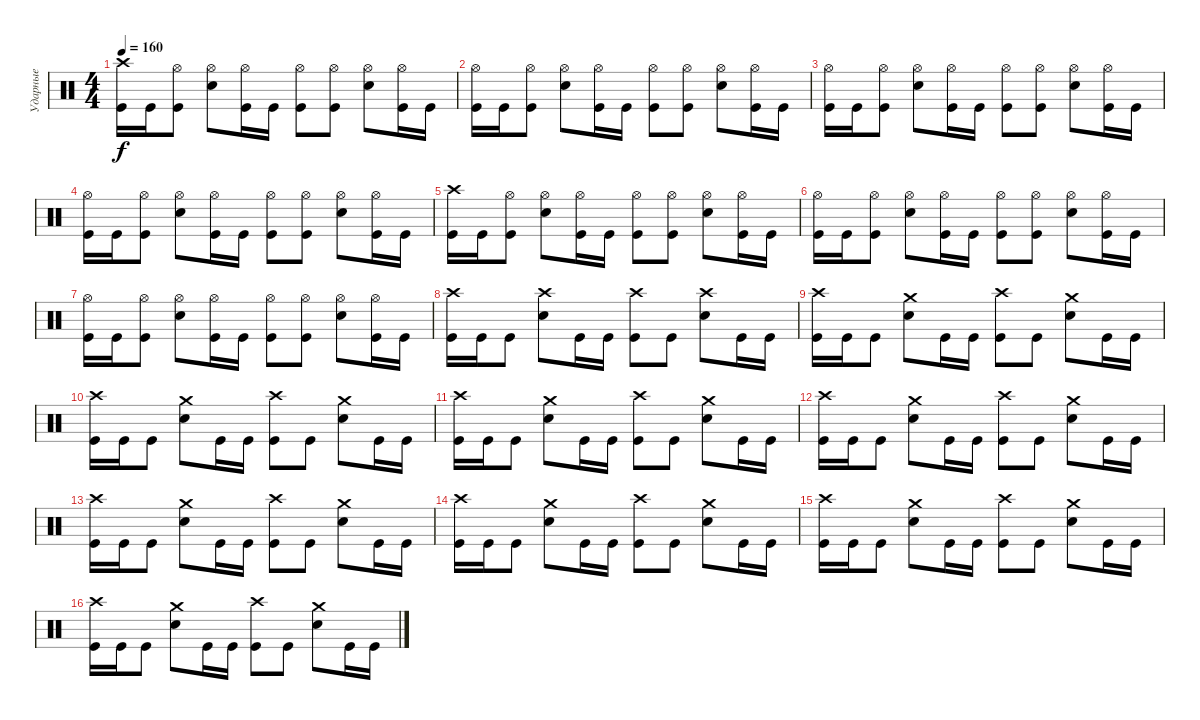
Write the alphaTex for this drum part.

\track ("Ударные" "Ударные") {instrument percussion}
\staff {score}
\articulation defaults
\ts (4 4)
\tempo 160
\clef neutral
\ks c
("Crash high (hit)" "Kick (hit)").16{dy f} "Kick (hit)".16 ("Hi-Hat (open)" "Kick (hit)").8 ("Hi-Hat (open)" "Snare (hit) 2").8 ("Hi-Hat (open)" "Kick (hit)").16 "Kick (hit)".16 ("Hi-Hat (open)" "Kick (hit)").8 ("Hi-Hat (open)" "Kick (hit)").8 ("Hi-Hat (open)" "Snare (hit) 2").8 ("Hi-Hat (open)" "Kick (hit)").16 "Kick (hit)".16 |
("Hi-Hat (open)" "Kick (hit)").16 "Kick (hit)".16 ("Hi-Hat (open)" "Kick (hit)").8 ("Hi-Hat (open)" "Snare (hit) 2").8 ("Hi-Hat (open)" "Kick (hit)").16 "Kick (hit)".16 ("Hi-Hat (open)" "Kick (hit)").8 ("Hi-Hat (open)" "Kick (hit)").8 ("Hi-Hat (open)" "Snare (hit) 2").8 ("Hi-Hat (open)" "Kick (hit)").16 "Kick (hit)".16 |
("Hi-Hat (open)" "Kick (hit)").16 "Kick (hit)".16 ("Hi-Hat (open)" "Kick (hit)").8 ("Hi-Hat (open)" "Snare (hit) 2").8 ("Hi-Hat (open)" "Kick (hit)").16 "Kick (hit)".16 ("Hi-Hat (open)" "Kick (hit)").8 ("Hi-Hat (open)" "Kick (hit)").8 ("Hi-Hat (open)" "Snare (hit) 2").8 ("Hi-Hat (open)" "Kick (hit)").16 "Kick (hit)".16 |
("Hi-Hat (open)" "Kick (hit)").16 "Kick (hit)".16 ("Hi-Hat (open)" "Kick (hit)").8 ("Hi-Hat (open)" "Snare (hit) 2").8 ("Hi-Hat (open)" "Kick (hit)").16 "Kick (hit)".16 ("Hi-Hat (open)" "Kick (hit)").8 ("Hi-Hat (open)" "Kick (hit)").8 ("Hi-Hat (open)" "Snare (hit) 2").8 ("Hi-Hat (open)" "Kick (hit)").16 "Kick (hit)".16 |
("Crash high (hit)" "Kick (hit)").16 "Kick (hit)".16 ("Hi-Hat (open)" "Kick (hit)").8 ("Hi-Hat (open)" "Snare (hit) 2").8 ("Hi-Hat (open)" "Kick (hit)").16 "Kick (hit)".16 ("Hi-Hat (open)" "Kick (hit)").8 ("Hi-Hat (open)" "Kick (hit)").8 ("Hi-Hat (open)" "Snare (hit) 2").8 ("Hi-Hat (open)" "Kick (hit)").16 "Kick (hit)".16 |
("Hi-Hat (open)" "Kick (hit)").16 "Kick (hit)".16 ("Hi-Hat (open)" "Kick (hit)").8 ("Hi-Hat (open)" "Snare (hit) 2").8 ("Hi-Hat (open)" "Kick (hit)").16 "Kick (hit)".16 ("Hi-Hat (open)" "Kick (hit)").8 ("Hi-Hat (open)" "Kick (hit)").8 ("Hi-Hat (open)" "Snare (hit) 2").8 ("Hi-Hat (open)" "Kick (hit)").16 "Kick (hit)".16 |
("Hi-Hat (open)" "Kick (hit)").16 "Kick (hit)".16 ("Hi-Hat (open)" "Kick (hit)").8 ("Hi-Hat (open)" "Snare (hit) 2").8 ("Hi-Hat (open)" "Kick (hit)").16 "Kick (hit)".16 ("Hi-Hat (open)" "Kick (hit)").8 ("Hi-Hat (open)" "Kick (hit)").8 ("Hi-Hat (open)" "Snare (hit) 2").8 ("Hi-Hat (open)" "Kick (hit)").16 "Kick (hit)".16 |
("Crash high (hit)" "Kick (hit)").16 "Kick (hit)".16 "Kick (hit)".8 ("Crash high (hit)" "Snare (hit) 2").8 "Kick (hit)".16 "Kick (hit)".16 ("Crash high (hit)" "Kick (hit)").8 "Kick (hit)".8 ("Crash high (hit)" "Snare (hit) 2").8 "Kick (hit)".16 "Kick (hit)".16 |
("Crash high (hit)" "Kick (hit)").16 "Kick (hit)".16 "Kick (hit)".8 ("Crash medium (hit)" "Snare (hit) 2").8 "Kick (hit)".16 "Kick (hit)".16 ("Crash high (hit)" "Kick (hit)").8 "Kick (hit)".8 ("Crash medium (hit)" "Snare (hit) 2").8 "Kick (hit)".16 "Kick (hit)".16 |
("Crash high (hit)" "Kick (hit)").16 "Kick (hit)".16 "Kick (hit)".8 ("Crash medium (hit)" "Snare (hit) 2").8 "Kick (hit)".16 "Kick (hit)".16 ("Crash high (hit)" "Kick (hit)").8 "Kick (hit)".8 ("Crash medium (hit)" "Snare (hit) 2").8 "Kick (hit)".16 "Kick (hit)".16 |
("Crash high (hit)" "Kick (hit)").16 "Kick (hit)".16 "Kick (hit)".8 ("Crash medium (hit)" "Snare (hit) 2").8 "Kick (hit)".16 "Kick (hit)".16 ("Crash high (hit)" "Kick (hit)").8 "Kick (hit)".8 ("Crash medium (hit)" "Snare (hit) 2").8 "Kick (hit)".16 "Kick (hit)".16 |
("Crash high (hit)" "Kick (hit)").16 "Kick (hit)".16 "Kick (hit)".8 ("Crash medium (hit)" "Snare (hit) 2").8 "Kick (hit)".16 "Kick (hit)".16 ("Crash high (hit)" "Kick (hit)").8 "Kick (hit)".8 ("Crash medium (hit)" "Snare (hit) 2").8 "Kick (hit)".16 "Kick (hit)".16 |
("Crash high (hit)" "Kick (hit)").16 "Kick (hit)".16 "Kick (hit)".8 ("Crash medium (hit)" "Snare (hit) 2").8 "Kick (hit)".16 "Kick (hit)".16 ("Crash high (hit)" "Kick (hit)").8 "Kick (hit)".8 ("Crash medium (hit)" "Snare (hit) 2").8 "Kick (hit)".16 "Kick (hit)".16 |
("Crash high (hit)" "Kick (hit)").16 "Kick (hit)".16 "Kick (hit)".8 ("Crash medium (hit)" "Snare (hit) 2").8 "Kick (hit)".16 "Kick (hit)".16 ("Crash high (hit)" "Kick (hit)").8 "Kick (hit)".8 ("Crash medium (hit)" "Snare (hit) 2").8 "Kick (hit)".16 "Kick (hit)".16 |
("Crash high (hit)" "Kick (hit)").16 "Kick (hit)".16 "Kick (hit)".8 ("Crash medium (hit)" "Snare (hit) 2").8 "Kick (hit)".16 "Kick (hit)".16 ("Crash high (hit)" "Kick (hit)").8 "Kick (hit)".8 ("Crash medium (hit)" "Snare (hit) 2").8 "Kick (hit)".16 "Kick (hit)".16 |
("Crash high (hit)" "Kick (hit)").16 "Kick (hit)".16 "Kick (hit)".8 ("Crash medium (hit)" "Snare (hit) 2").8 "Kick (hit)".16 "Kick (hit)".16 ("Crash high (hit)" "Kick (hit)").8 "Kick (hit)".8 ("Crash medium (hit)" "Snare (hit) 2").8 "Kick (hit)".16 "Kick (hit)".16
